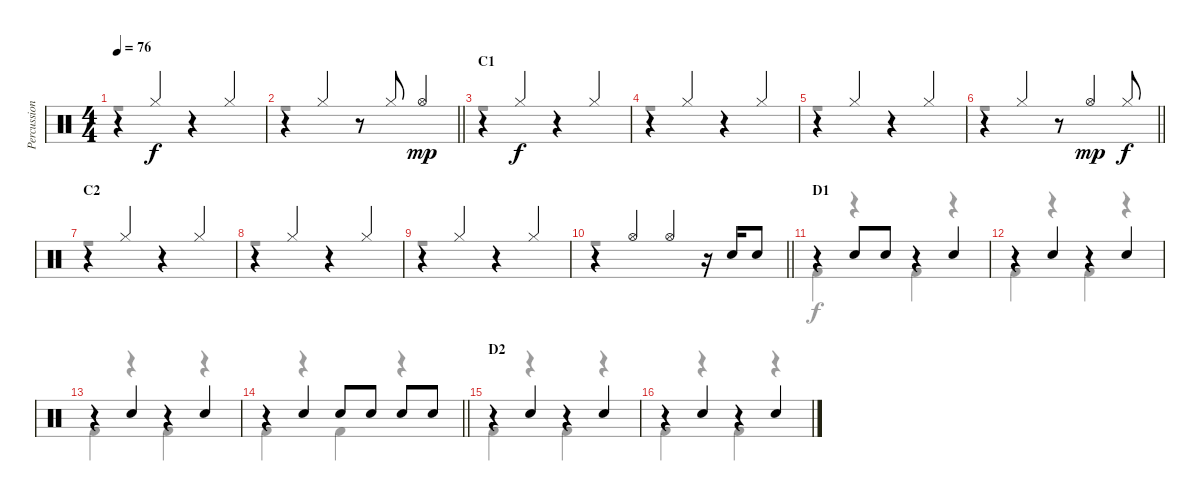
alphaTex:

\track ("Percussioni" "Percussion") {instrument percussion}
\staff {score}
\articulation defaults
\voice
\ts (4 4)
\tempo 76
\clef neutral
\ks c
r.4{dy f} "Hi-Hat (closed)".4 r.4 "Hi-Hat (closed)".4 |
\barLineRight lightlight
r.4 "Hi-Hat (closed)".4 r.8 "Hi-Hat (closed)".8 "Hi-Hat (open)".4{dy mp} |
\section ("" "C1")
r.4 "Hi-Hat (closed)".4{dy f} r.4 "Hi-Hat (closed)".4 |
r.4 "Hi-Hat (closed)".4 r.4 "Hi-Hat (closed)".4 |
r.4 "Hi-Hat (closed)".4 r.4 "Hi-Hat (closed)".4 |
\barLineRight lightlight
r.4 "Hi-Hat (closed)".4 r.8 "Hi-Hat (open)".4{dy mp} "Hi-Hat (closed)".8{dy f} |
\section ("" "C2")
r.4 "Hi-Hat (closed)".4 r.4 "Hi-Hat (closed)".4 |
r.4 "Hi-Hat (closed)".4 r.4 "Hi-Hat (closed)".4 |
r.4 "Hi-Hat (closed)".4 r.4 "Hi-Hat (closed)".4 |
\barLineRight lightlight
r.4 "Hi-Hat (open)".4 "Hi-Hat (open)".4 r.16 "Snare (hit) 2".16 "Snare (hit) 2".8 |
\section ("" "D1")
r.4 "Snare (hit) 2".8 "Snare (hit) 2".8 r.4 "Snare (hit) 2".4 |
r.4 "Snare (hit) 2".4 r.4 "Snare (hit) 2".4 |
r.4 "Snare (hit) 2".4 r.4 "Snare (hit) 2".4 |
\barLineRight lightlight
r.4 "Snare (hit) 2".4 "Snare (hit) 2".8 "Snare (hit) 2".8 "Snare (hit) 2".8 "Snare (hit) 2".8 |
\section ("" "D2")
r.4 "Snare (hit) 2".4 r.4 "Snare (hit) 2".4 |
r.4 "Snare (hit) 2".4 r.4 "Snare (hit) 2".4
\voice
\clef neutral
\ottava regular
\simile none
\ks c
r.1{dy f} |
\barLineRight lightlight
r.1 |
r.1 |
r.1 |
r.1 |
\barLineRight lightlight
r.1 |
r.1 |
r.1 |
r.1 |
\barLineRight lightlight
r.1 |
"Kick (hit) 2".4 r.4 "Kick (hit) 2".4 r.4 |
"Kick (hit) 2".4 r.4 "Kick (hit) 2".4 r.4 |
"Kick (hit) 2".4 r.4 "Kick (hit) 2".4 r.4 |
\barLineRight lightlight "Kick (hit) 2".4
r.4 "Kick (hit) 2".4 r.4 |
"Kick (hit) 2".4 r.4 "Kick (hit) 2".4 r.4 |
"Kick (hit) 2".4 r.4 "Kick (hit) 2".4 r.4
